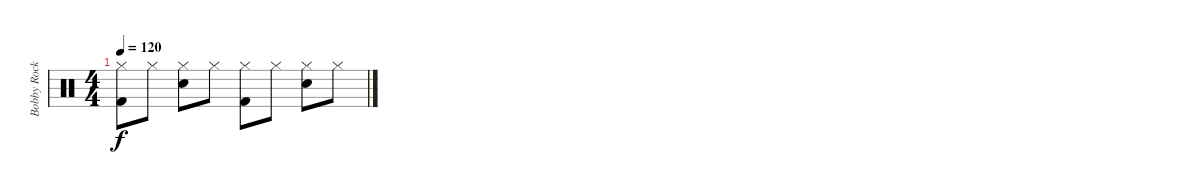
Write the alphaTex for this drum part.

\track ("Bobby Rock" "Bobby Rock") {instrument percussion}
\staff {score}
\articulation defaults
\ts (4 4)
\tempo 120
\clef neutral
\ks c
("Kick (hit) 2" "Hi-Hat (closed)").8{dy f} "Hi-Hat (closed)".8 ("Snare (hit) 2" "Hi-Hat (closed)").8 "Hi-Hat (closed)".8 ("Kick (hit) 2" "Hi-Hat (closed)").8 "Hi-Hat (closed)".8 ("Snare (hit) 2" "Hi-Hat (closed)").8 "Hi-Hat (closed)".8
